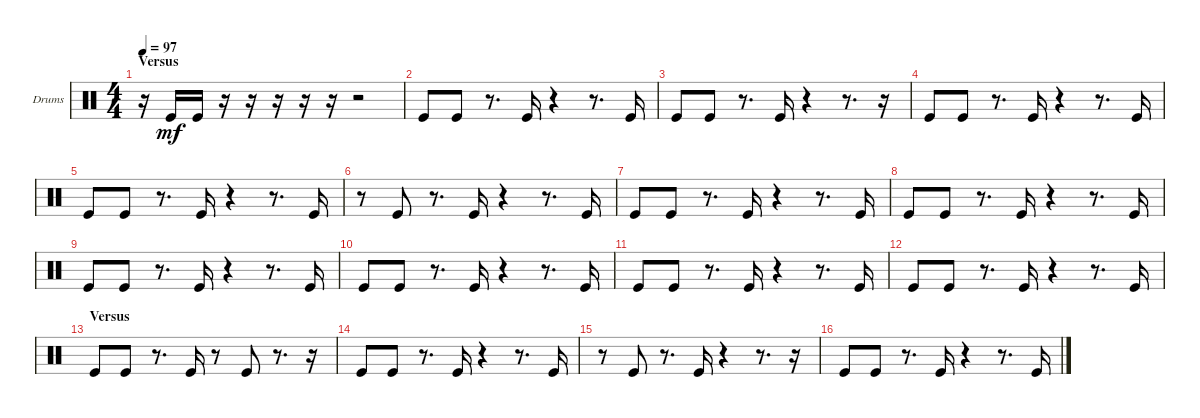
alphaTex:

\bracketExtendMode groupsimilarinstruments
\firstSystemTrackNameOrientation horizontal
\otherSystemsTrackNameOrientation horizontal
\track ("Kick" "Drums") {instrument percussion}
\staff {score}
\articulation defaults
\ts (4 4)
\section ("" "Versus")
\tempo 97
\clef neutral
\ks c
r.16{dy mf} "Kick (hit)".16 "Kick (hit)".16 r.16 r.16 r.16 r.16 r.16 r.2 |
"Kick (hit)".8 "Kick (hit)".8 r.8{d} "Kick (hit)".16 r.4 r.8{d} "Kick (hit)".16 |
"Kick (hit)".8 "Kick (hit)".8 r.8{d} "Kick (hit)".16 r.4 r.8{d} r.16 |
"Kick (hit)".8 "Kick (hit)".8 r.8{d} "Kick (hit)".16 r.4 r.8{d} "Kick (hit)".16 |
"Kick (hit)".8 "Kick (hit)".8 r.8{d} "Kick (hit)".16 r.4 r.8{d} "Kick (hit)".16 |
r.8 "Kick (hit)".8 r.8{d} "Kick (hit)".16 r.4 r.8{d} "Kick (hit)".16 |
"Kick (hit)".8 "Kick (hit)".8 r.8{d} "Kick (hit)".16 r.4 r.8{d} "Kick (hit)".16 |
"Kick (hit)".8 "Kick (hit)".8 r.8{d} "Kick (hit)".16 r.4 r.8{d} "Kick (hit)".16 |
"Kick (hit)".8 "Kick (hit)".8 r.8{d} "Kick (hit)".16 r.4 r.8{d} "Kick (hit)".16 |
"Kick (hit)".8 "Kick (hit)".8 r.8{d} "Kick (hit)".16 r.4 r.8{d} "Kick (hit)".16 |
"Kick (hit)".8 "Kick (hit)".8 r.8{d} "Kick (hit)".16 r.4 r.8{d} "Kick (hit)".16 |
"Kick (hit)".8 "Kick (hit)".8 r.8{d} "Kick (hit)".16 r.4 r.8{d} "Kick (hit)".16 |
\section ("" "Versus")
"Kick (hit)".8 "Kick (hit)".8 r.8{d} "Kick (hit)".16 r.8 "Kick (hit)".8 r.8{d} r.16 |
"Kick (hit)".8 "Kick (hit)".8 r.8{d} "Kick (hit)".16 r.4 r.8{d} "Kick (hit)".16 |
r.8 "Kick (hit)".8 r.8{d} "Kick (hit)".16 r.4 r.8{d} r.16 |
"Kick (hit)".8 "Kick (hit)".8 r.8{d} "Kick (hit)".16 r.4 r.8{d} "Kick (hit)".16
